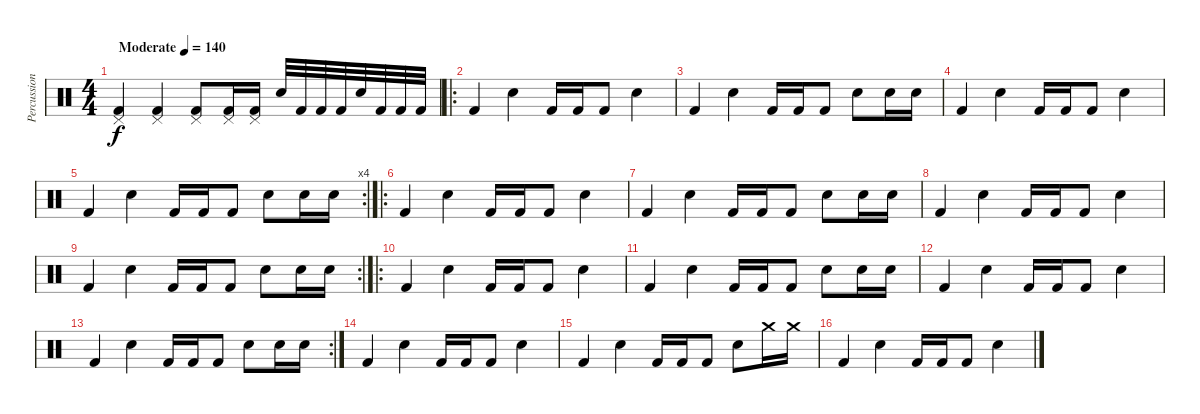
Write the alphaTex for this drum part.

\track ("Percussion" "Percussion") {instrument percussion}
\staff {score}
\articulation defaults
\ts (4 4)
\tempo (140 "Moderate")
\clef neutral
\ks c
("Kick (hit) 2" "Pedal Hi-Hat (hit)").4{dy f} ("Kick (hit) 2" "Pedal Hi-Hat (hit)").4 ("Kick (hit) 2" "Pedal Hi-Hat (hit)").8 ("Kick (hit) 2" "Pedal Hi-Hat (hit)").16 ("Kick (hit) 2" "Pedal Hi-Hat (hit)").16 "Electric Snare (hit)".32 "Kick (hit) 2".32 "Kick (hit) 2".32 "Kick (hit) 2".32 "Electric Snare (hit)".32 "Kick (hit) 2".32 "Kick (hit) 2".32 "Kick (hit) 2".32 |
\ro "Kick (hit) 2".4 "Electric Snare (hit)".4 "Kick (hit) 2".16 "Kick (hit) 2".16 "Kick (hit) 2".8 "Electric Snare (hit)".4
|
"Kick (hit) 2".4 "Electric Snare (hit)".4 "Kick (hit) 2".16 "Kick (hit) 2".16 "Kick (hit) 2".8 "Electric Snare (hit)".8 "Electric Snare (hit)".16 "Electric Snare (hit)".16 |
"Kick (hit) 2".4 "Electric Snare (hit)".4 "Kick (hit) 2".16 "Kick (hit) 2".16 "Kick (hit) 2".8 "Electric Snare (hit)".4 |
\rc 4 "Kick (hit) 2".4 "Electric Snare (hit)".4 "Kick (hit) 2".16 "Kick (hit) 2".16 "Kick (hit) 2".8 "Electric Snare (hit)".8 "Electric Snare (hit)".16 "Electric Snare (hit)".16
|
\ro "Kick (hit) 2".4 "Electric Snare (hit)".4 "Kick (hit) 2".16 "Kick (hit) 2".16 "Kick (hit) 2".8 "Electric Snare (hit)".4
|
"Kick (hit) 2".4 "Electric Snare (hit)".4 "Kick (hit) 2".16 "Kick (hit) 2".16 "Kick (hit) 2".8 "Electric Snare (hit)".8 "Electric Snare (hit)".16 "Electric Snare (hit)".16 |
"Kick (hit) 2".4 "Electric Snare (hit)".4 "Kick (hit) 2".16 "Kick (hit) 2".16 "Kick (hit) 2".8 "Electric Snare (hit)".4 |
\rc 2 "Kick (hit) 2".4 "Electric Snare (hit)".4 "Kick (hit) 2".16 "Kick (hit) 2".16 "Kick (hit) 2".8 "Electric Snare (hit)".8 "Electric Snare (hit)".16 "Electric Snare (hit)".16
|
\ro "Kick (hit) 2".4 "Electric Snare (hit)".4 "Kick (hit) 2".16 "Kick (hit) 2".16 "Kick (hit) 2".8 "Electric Snare (hit)".4
|
"Kick (hit) 2".4 "Electric Snare (hit)".4 "Kick (hit) 2".16 "Kick (hit) 2".16 "Kick (hit) 2".8 "Electric Snare (hit)".8 "Electric Snare (hit)".16 "Electric Snare (hit)".16 |
"Kick (hit) 2".4 "Electric Snare (hit)".4 "Kick (hit) 2".16 "Kick (hit) 2".16 "Kick (hit) 2".8 "Electric Snare (hit)".4 |
\rc 2 "Kick (hit) 2".4 "Electric Snare (hit)".4 "Kick (hit) 2".16 "Kick (hit) 2".16 "Kick (hit) 2".8 "Electric Snare (hit)".8 "Electric Snare (hit)".16 "Electric Snare (hit)".16
|
"Kick (hit) 2".4 "Electric Snare (hit)".4 "Kick (hit) 2".16 "Kick (hit) 2".16 "Kick (hit) 2".8 "Electric Snare (hit)".4 |
"Kick (hit) 2".4 "Electric Snare (hit)".4 "Kick (hit) 2".16 "Kick (hit) 2".16 "Kick (hit) 2".8 "Electric Snare (hit)".8 "Crash medium (hit)".16 "Crash medium (hit)".16 |
"Kick (hit) 2".4 "Electric Snare (hit)".4 "Kick (hit) 2".16 "Kick (hit) 2".16 "Kick (hit) 2".8 "Electric Snare (hit)".4
